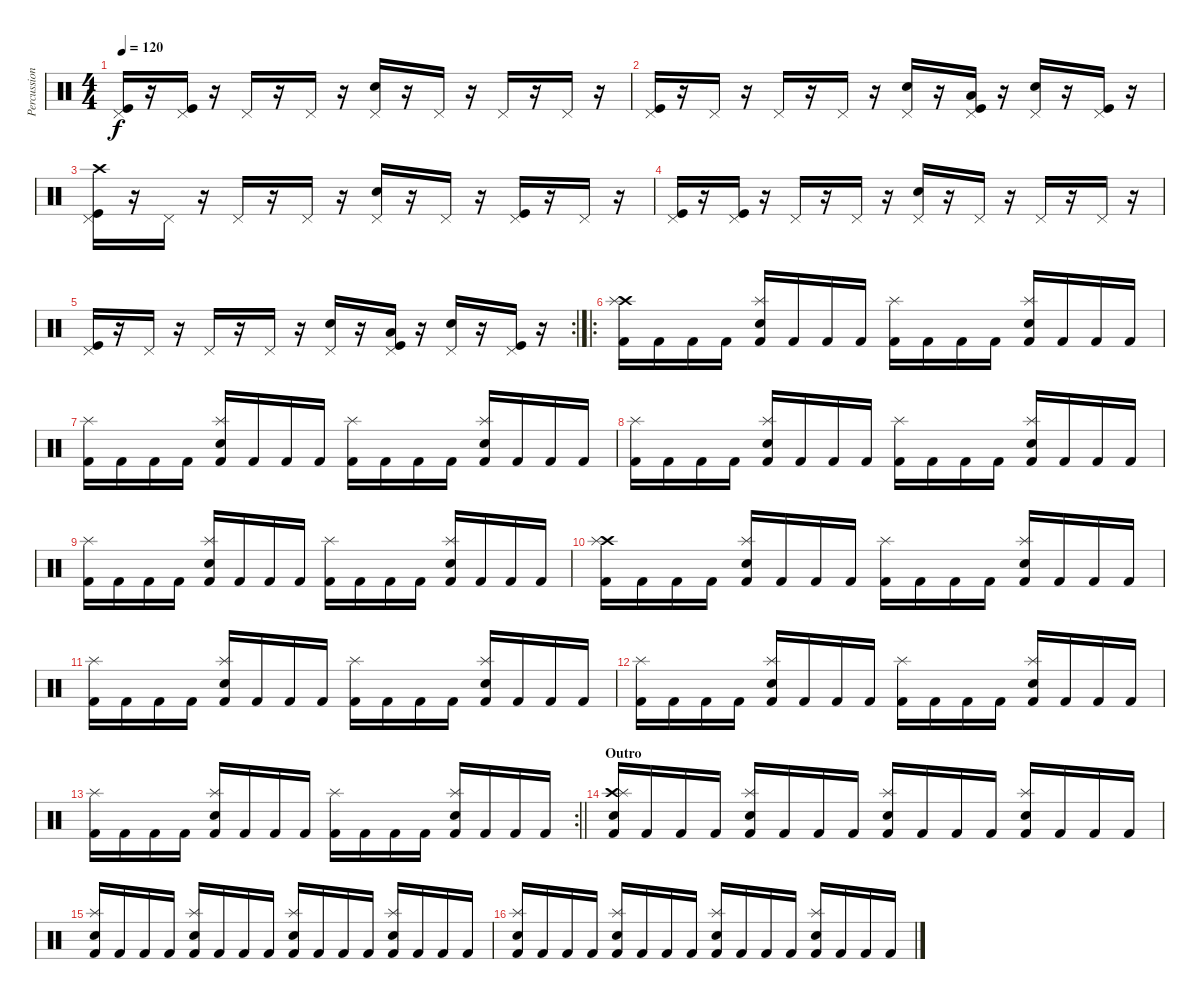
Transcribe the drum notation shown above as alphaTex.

\track ("Percussion" "Percussion") {instrument percussion}
\staff {score}
\articulation defaults
\ts (4 4)
\tempo 120
\clef neutral
\ks c
("Pedal Hi-Hat (hit)" "Kick (hit)").16{dy f} r.16 ("Pedal Hi-Hat (hit)" "Kick (hit)").16 r.16 "Pedal Hi-Hat (hit)".16 r.16 "Pedal Hi-Hat (hit)".16 r.16 ("Pedal Hi-Hat (hit)" "Electric Snare (hit)").16 r.16 "Pedal Hi-Hat (hit)".16 r.16 "Pedal Hi-Hat (hit)".16 r.16 "Pedal Hi-Hat (hit)".16 r.16 |
("Pedal Hi-Hat (hit)" "Kick (hit)").16 r.16 "Pedal Hi-Hat (hit)".16 r.16 "Pedal Hi-Hat (hit)".16 r.16 "Pedal Hi-Hat (hit)".16 r.16 ("Pedal Hi-Hat (hit)" "Electric Snare (hit)").16 r.16 ("Pedal Hi-Hat (hit)" "Low Tom (hit)" "Kick (hit)").16 r.16 ("Pedal Hi-Hat (hit)" "Electric Snare (hit)").16 r.16 ("Pedal Hi-Hat (hit)" "Kick (hit)").16 r.16 |
("Crash high (hit)" "Pedal Hi-Hat (hit)" "Kick (hit)").16 r.16 "Pedal Hi-Hat (hit)".16 r.16 "Pedal Hi-Hat (hit)".16 r.16 "Pedal Hi-Hat (hit)".16 r.16 ("Pedal Hi-Hat (hit)" "Electric Snare (hit)").16 r.16 "Pedal Hi-Hat (hit)".16 r.16 ("Pedal Hi-Hat (hit)" "Kick (hit)").16 r.16 "Pedal Hi-Hat (hit)".16 r.16 |
("Pedal Hi-Hat (hit)" "Kick (hit)").16 r.16 ("Pedal Hi-Hat (hit)" "Kick (hit)").16 r.16 "Pedal Hi-Hat (hit)".16 r.16 "Pedal Hi-Hat (hit)".16 r.16 ("Pedal Hi-Hat (hit)" "Electric Snare (hit)").16 r.16 "Pedal Hi-Hat (hit)".16 r.16 "Pedal Hi-Hat (hit)".16 r.16 "Pedal Hi-Hat (hit)".16 r.16 |
\rc 2
("Pedal Hi-Hat (hit)" "Kick (hit)").16 r.16 "Pedal Hi-Hat (hit)".16 r.16 "Pedal Hi-Hat (hit)".16 r.16 "Pedal Hi-Hat (hit)".16 r.16 ("Pedal Hi-Hat (hit)" "Electric Snare (hit)").16 r.16 ("Pedal Hi-Hat (hit)" "Low Tom (hit)" "Kick (hit)").16 r.16 ("Pedal Hi-Hat (hit)" "Electric Snare (hit)").16 r.16 ("Pedal Hi-Hat (hit)" "Kick (hit)").16 r.16 |
\ro
("Crash high (hit)" "Splash (hit)" "Kick (hit) 2").16 "Kick (hit) 2".16 "Kick (hit) 2".16 "Kick (hit) 2".16 ("Splash (hit)" "Electric Snare (hit)" "Kick (hit) 2").16 "Kick (hit) 2".16 "Kick (hit) 2".16 "Kick (hit) 2".16 ("Splash (hit)" "Kick (hit) 2").16 "Kick (hit) 2".16 "Kick (hit) 2".16 "Kick (hit) 2".16 ("Splash (hit)" "Electric Snare (hit)" "Kick (hit) 2").16 "Kick (hit) 2".16 "Kick (hit) 2".16 "Kick (hit) 2".16 |
("Splash (hit)" "Kick (hit) 2").16 "Kick (hit) 2".16 "Kick (hit) 2".16 "Kick (hit) 2".16 ("Splash (hit)" "Electric Snare (hit)" "Kick (hit) 2").16 "Kick (hit) 2".16 "Kick (hit) 2".16 "Kick (hit) 2".16 ("Splash (hit)" "Kick (hit) 2").16 "Kick (hit) 2".16 "Kick (hit) 2".16 "Kick (hit) 2".16 ("Splash (hit)" "Electric Snare (hit)" "Kick (hit) 2").16 "Kick (hit) 2".16 "Kick (hit) 2".16 "Kick (hit) 2".16 |
("Splash (hit)" "Kick (hit) 2").16 "Kick (hit) 2".16 "Kick (hit) 2".16 "Kick (hit) 2".16 ("Splash (hit)" "Electric Snare (hit)" "Kick (hit) 2").16 "Kick (hit) 2".16 "Kick (hit) 2".16 "Kick (hit) 2".16 ("Splash (hit)" "Kick (hit) 2").16 "Kick (hit) 2".16 "Kick (hit) 2".16 "Kick (hit) 2".16 ("Splash (hit)" "Electric Snare (hit)" "Kick (hit) 2").16 "Kick (hit) 2".16 "Kick (hit) 2".16 "Kick (hit) 2".16 |
("Splash (hit)" "Kick (hit) 2").16 "Kick (hit) 2".16 "Kick (hit) 2".16 "Kick (hit) 2".16 ("Splash (hit)" "Electric Snare (hit)" "Kick (hit) 2").16 "Kick (hit) 2".16 "Kick (hit) 2".16 "Kick (hit) 2".16 ("Splash (hit)" "Kick (hit) 2").16 "Kick (hit) 2".16 "Kick (hit) 2".16 "Kick (hit) 2".16 ("Splash (hit)" "Electric Snare (hit)" "Kick (hit) 2").16 "Kick (hit) 2".16 "Kick (hit) 2".16 "Kick (hit) 2".16 |
("Crash high (hit)" "Splash (hit)" "Kick (hit) 2").16 "Kick (hit) 2".16 "Kick (hit) 2".16 "Kick (hit) 2".16 ("Splash (hit)" "Electric Snare (hit)" "Kick (hit) 2").16 "Kick (hit) 2".16 "Kick (hit) 2".16 "Kick (hit) 2".16 ("Splash (hit)" "Kick (hit) 2").16 "Kick (hit) 2".16 "Kick (hit) 2".16 "Kick (hit) 2".16 ("Splash (hit)" "Electric Snare (hit)" "Kick (hit) 2").16 "Kick (hit) 2".16 "Kick (hit) 2".16 "Kick (hit) 2".16 |
("Splash (hit)" "Kick (hit) 2").16 "Kick (hit) 2".16 "Kick (hit) 2".16 "Kick (hit) 2".16 ("Splash (hit)" "Electric Snare (hit)" "Kick (hit) 2").16 "Kick (hit) 2".16 "Kick (hit) 2".16 "Kick (hit) 2".16 ("Splash (hit)" "Kick (hit) 2").16 "Kick (hit) 2".16 "Kick (hit) 2".16 "Kick (hit) 2".16 ("Splash (hit)" "Electric Snare (hit)" "Kick (hit) 2").16 "Kick (hit) 2".16 "Kick (hit) 2".16 "Kick (hit) 2".16 |
("Splash (hit)" "Kick (hit) 2").16 "Kick (hit) 2".16 "Kick (hit) 2".16 "Kick (hit) 2".16 ("Splash (hit)" "Electric Snare (hit)" "Kick (hit) 2").16 "Kick (hit) 2".16 "Kick (hit) 2".16 "Kick (hit) 2".16 ("Splash (hit)" "Kick (hit) 2").16 "Kick (hit) 2".16 "Kick (hit) 2".16 "Kick (hit) 2".16 ("Splash (hit)" "Electric Snare (hit)" "Kick (hit) 2").16 "Kick (hit) 2".16 "Kick (hit) 2".16 "Kick (hit) 2".16 |
\rc 2
\barLineRight lightlight
("Splash (hit)" "Kick (hit) 2").16 "Kick (hit) 2".16 "Kick (hit) 2".16 "Kick (hit) 2".16 ("Splash (hit)" "Electric Snare (hit)" "Kick (hit) 2").16 "Kick (hit) 2".16 "Kick (hit) 2".16 "Kick (hit) 2".16 ("Splash (hit)" "Kick (hit) 2").16 "Kick (hit) 2".16 "Kick (hit) 2".16 "Kick (hit) 2".16 ("Splash (hit)" "Electric Snare (hit)" "Kick (hit) 2").16 "Kick (hit) 2".16 "Kick (hit) 2".16 "Kick (hit) 2".16 |
\section ("" "Outro")
("Crash high (hit)" "Splash (hit)" "Electric Snare (hit)" "Kick (hit) 2").16 "Kick (hit) 2".16 "Kick (hit) 2".16 "Kick (hit) 2".16 ("Splash (hit)" "Electric Snare (hit)" "Kick (hit) 2").16 "Kick (hit) 2".16 "Kick (hit) 2".16 "Kick (hit) 2".16 ("Splash (hit)" "Electric Snare (hit)" "Kick (hit) 2").16 "Kick (hit) 2".16 "Kick (hit) 2".16 "Kick (hit) 2".16 ("Splash (hit)" "Electric Snare (hit)" "Kick (hit) 2").16 "Kick (hit) 2".16 "Kick (hit) 2".16 "Kick (hit) 2".16 |
("Splash (hit)" "Electric Snare (hit)" "Kick (hit) 2").16 "Kick (hit) 2".16 "Kick (hit) 2".16 "Kick (hit) 2".16 ("Splash (hit)" "Electric Snare (hit)" "Kick (hit) 2").16 "Kick (hit) 2".16 "Kick (hit) 2".16 "Kick (hit) 2".16 ("Splash (hit)" "Electric Snare (hit)" "Kick (hit) 2").16 "Kick (hit) 2".16 "Kick (hit) 2".16 "Kick (hit) 2".16 ("Splash (hit)" "Electric Snare (hit)" "Kick (hit) 2").16 "Kick (hit) 2".16 "Kick (hit) 2".16 "Kick (hit) 2".16 |
("Splash (hit)" "Electric Snare (hit)" "Kick (hit) 2").16 "Kick (hit) 2".16 "Kick (hit) 2".16 "Kick (hit) 2".16 ("Splash (hit)" "Electric Snare (hit)" "Kick (hit) 2").16 "Kick (hit) 2".16 "Kick (hit) 2".16 "Kick (hit) 2".16 ("Splash (hit)" "Electric Snare (hit)" "Kick (hit) 2").16 "Kick (hit) 2".16 "Kick (hit) 2".16 "Kick (hit) 2".16 ("Splash (hit)" "Electric Snare (hit)" "Kick (hit) 2").16 "Kick (hit) 2".16 "Kick (hit) 2".16 "Kick (hit) 2".16
